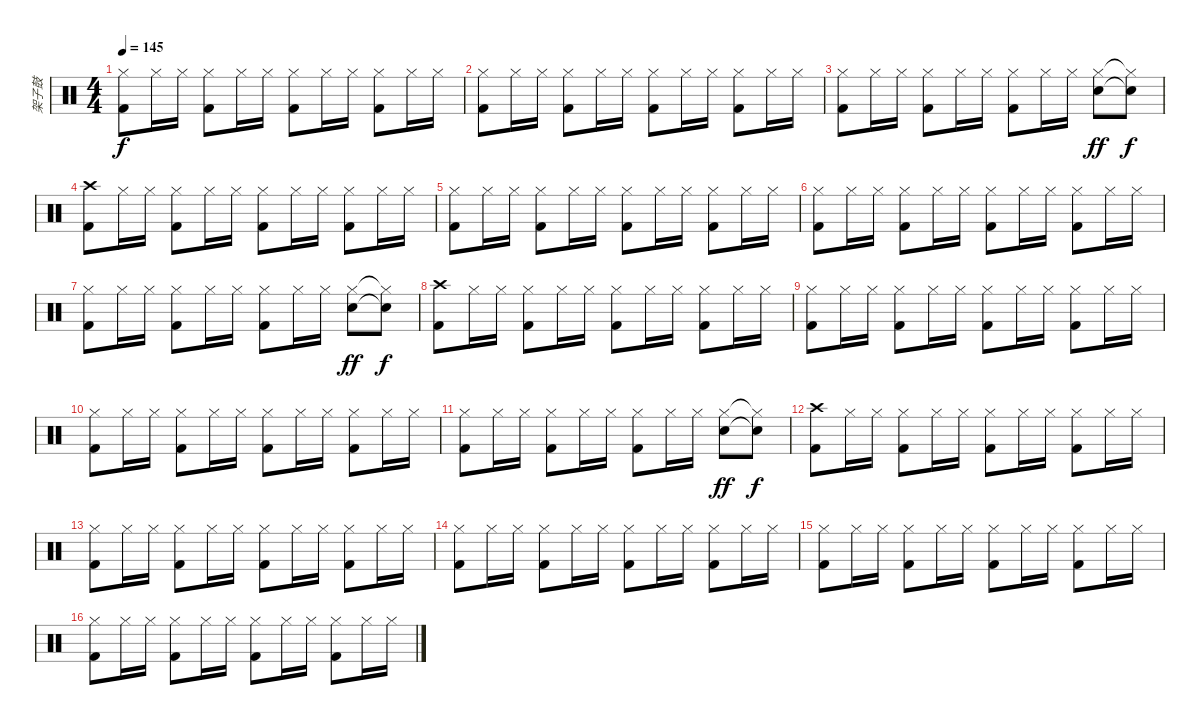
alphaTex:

\track ("架子鼓" "架子鼓") {instrument percussion}
\staff {score}
\articulation defaults
\ts (4 4)
\tempo 145
\clef neutral
\ks c
("Kick (hit) 2" "Hi-Hat (closed)").8{dy f} "Hi-Hat (closed)".16 "Hi-Hat (closed)".16 ("Kick (hit) 2" "Hi-Hat (closed)").8 "Hi-Hat (closed)".16 "Hi-Hat (closed)".16 ("Kick (hit) 2" "Hi-Hat (closed)").8 "Hi-Hat (closed)".16 "Hi-Hat (closed)".16 ("Kick (hit) 2" "Hi-Hat (closed)").8 "Hi-Hat (closed)".16 "Hi-Hat (closed)".16 |
("Kick (hit) 2" "Hi-Hat (closed)").8 "Hi-Hat (closed)".16 "Hi-Hat (closed)".16 ("Kick (hit) 2" "Hi-Hat (closed)").8 "Hi-Hat (closed)".16 "Hi-Hat (closed)".16 ("Kick (hit) 2" "Hi-Hat (closed)").8 "Hi-Hat (closed)".16 "Hi-Hat (closed)".16 ("Kick (hit) 2" "Hi-Hat (closed)").8 "Hi-Hat (closed)".16 "Hi-Hat (closed)".16 |
("Kick (hit) 2" "Hi-Hat (closed)").8 "Hi-Hat (closed)".16 "Hi-Hat (closed)".16 ("Kick (hit) 2" "Hi-Hat (closed)").8 "Hi-Hat (closed)".16 "Hi-Hat (closed)".16 ("Kick (hit) 2" "Hi-Hat (closed)").8 "Hi-Hat (closed)".16 "Hi-Hat (closed)".16 ("Hi-Hat (closed)" "Snare (hit) 2").8{dy ff} ("Hi-Hat (closed)"{t} "Snare (hit)"{t}).8{dy f} |
("Kick (hit) 2" "Crash high (hit)").8 "Hi-Hat (closed)".16 "Hi-Hat (closed)".16 ("Kick (hit) 2" "Hi-Hat (closed)").8 "Hi-Hat (closed)".16 "Hi-Hat (closed)".16 ("Kick (hit) 2" "Hi-Hat (closed)").8 "Hi-Hat (closed)".16 "Hi-Hat (closed)".16 ("Kick (hit) 2" "Hi-Hat (closed)").8 "Hi-Hat (closed)".16 "Hi-Hat (closed)".16 |
("Kick (hit) 2" "Hi-Hat (closed)").8 "Hi-Hat (closed)".16 "Hi-Hat (closed)".16 ("Kick (hit) 2" "Hi-Hat (closed)").8 "Hi-Hat (closed)".16 "Hi-Hat (closed)".16 ("Kick (hit) 2" "Hi-Hat (closed)").8 "Hi-Hat (closed)".16 "Hi-Hat (closed)".16 ("Kick (hit) 2" "Hi-Hat (closed)").8 "Hi-Hat (closed)".16 "Hi-Hat (closed)".16 |
("Kick (hit) 2" "Hi-Hat (closed)").8 "Hi-Hat (closed)".16 "Hi-Hat (closed)".16 ("Kick (hit) 2" "Hi-Hat (closed)").8 "Hi-Hat (closed)".16 "Hi-Hat (closed)".16 ("Kick (hit) 2" "Hi-Hat (closed)").8 "Hi-Hat (closed)".16 "Hi-Hat (closed)".16 ("Kick (hit) 2" "Hi-Hat (closed)").8 "Hi-Hat (closed)".16 "Hi-Hat (closed)".16 |
("Kick (hit) 2" "Hi-Hat (closed)").8 "Hi-Hat (closed)".16 "Hi-Hat (closed)".16 ("Kick (hit) 2" "Hi-Hat (closed)").8 "Hi-Hat (closed)".16 "Hi-Hat (closed)".16 ("Kick (hit) 2" "Hi-Hat (closed)").8 "Hi-Hat (closed)".16 "Hi-Hat (closed)".16 ("Hi-Hat (closed)" "Snare (hit) 2").8{dy ff} ("Hi-Hat (closed)"{t} "Snare (hit)"{t}).8{dy f} |
("Kick (hit) 2" "Crash high (hit)").8 "Hi-Hat (closed)".16 "Hi-Hat (closed)".16 ("Kick (hit) 2" "Hi-Hat (closed)").8 "Hi-Hat (closed)".16 "Hi-Hat (closed)".16 ("Kick (hit) 2" "Hi-Hat (closed)").8 "Hi-Hat (closed)".16 "Hi-Hat (closed)".16 ("Kick (hit) 2" "Hi-Hat (closed)").8 "Hi-Hat (closed)".16 "Hi-Hat (closed)".16 |
("Kick (hit) 2" "Hi-Hat (closed)").8 "Hi-Hat (closed)".16 "Hi-Hat (closed)".16 ("Kick (hit) 2" "Hi-Hat (closed)").8 "Hi-Hat (closed)".16 "Hi-Hat (closed)".16 ("Kick (hit) 2" "Hi-Hat (closed)").8 "Hi-Hat (closed)".16 "Hi-Hat (closed)".16 ("Kick (hit) 2" "Hi-Hat (closed)").8 "Hi-Hat (closed)".16 "Hi-Hat (closed)".16 |
("Kick (hit) 2" "Hi-Hat (closed)").8 "Hi-Hat (closed)".16 "Hi-Hat (closed)".16 ("Kick (hit) 2" "Hi-Hat (closed)").8 "Hi-Hat (closed)".16 "Hi-Hat (closed)".16 ("Kick (hit) 2" "Hi-Hat (closed)").8 "Hi-Hat (closed)".16 "Hi-Hat (closed)".16 ("Kick (hit) 2" "Hi-Hat (closed)").8 "Hi-Hat (closed)".16 "Hi-Hat (closed)".16 |
("Kick (hit) 2" "Hi-Hat (closed)").8 "Hi-Hat (closed)".16 "Hi-Hat (closed)".16 ("Kick (hit) 2" "Hi-Hat (closed)").8 "Hi-Hat (closed)".16 "Hi-Hat (closed)".16 ("Kick (hit) 2" "Hi-Hat (closed)").8 "Hi-Hat (closed)".16 "Hi-Hat (closed)".16 ("Hi-Hat (closed)" "Snare (hit) 2").8{dy ff} ("Hi-Hat (closed)"{t} "Snare (hit)"{t}).8{dy f} |
("Kick (hit) 2" "Crash high (hit)").8 "Hi-Hat (closed)".16 "Hi-Hat (closed)".16 ("Kick (hit) 2" "Hi-Hat (closed)").8 "Hi-Hat (closed)".16 "Hi-Hat (closed)".16 ("Kick (hit) 2" "Hi-Hat (closed)").8 "Hi-Hat (closed)".16 "Hi-Hat (closed)".16 ("Kick (hit) 2" "Hi-Hat (closed)").8 "Hi-Hat (closed)".16 "Hi-Hat (closed)".16 |
("Kick (hit) 2" "Hi-Hat (closed)").8 "Hi-Hat (closed)".16 "Hi-Hat (closed)".16 ("Kick (hit) 2" "Hi-Hat (closed)").8 "Hi-Hat (closed)".16 "Hi-Hat (closed)".16 ("Kick (hit) 2" "Hi-Hat (closed)").8 "Hi-Hat (closed)".16 "Hi-Hat (closed)".16 ("Kick (hit) 2" "Hi-Hat (closed)").8 "Hi-Hat (closed)".16 "Hi-Hat (closed)".16 |
("Kick (hit) 2" "Hi-Hat (closed)").8 "Hi-Hat (closed)".16 "Hi-Hat (closed)".16 ("Kick (hit) 2" "Hi-Hat (closed)").8 "Hi-Hat (closed)".16 "Hi-Hat (closed)".16 ("Kick (hit) 2" "Hi-Hat (closed)").8 "Hi-Hat (closed)".16 "Hi-Hat (closed)".16 ("Kick (hit) 2" "Hi-Hat (closed)").8 "Hi-Hat (closed)".16 "Hi-Hat (closed)".16 |
("Kick (hit) 2" "Hi-Hat (closed)").8 "Hi-Hat (closed)".16 "Hi-Hat (closed)".16 ("Kick (hit) 2" "Hi-Hat (closed)").8 "Hi-Hat (closed)".16 "Hi-Hat (closed)".16 ("Kick (hit) 2" "Hi-Hat (closed)").8 "Hi-Hat (closed)".16 "Hi-Hat (closed)".16 ("Kick (hit) 2" "Hi-Hat (closed)").8 "Hi-Hat (closed)".16 "Hi-Hat (closed)".16 |
("Kick (hit) 2" "Hi-Hat (closed)").8 "Hi-Hat (closed)".16 "Hi-Hat (closed)".16 ("Kick (hit) 2" "Hi-Hat (closed)").8 "Hi-Hat (closed)".16 "Hi-Hat (closed)".16 ("Kick (hit) 2" "Hi-Hat (closed)").8 "Hi-Hat (closed)".16 "Hi-Hat (closed)".16 ("Kick (hit) 2" "Hi-Hat (closed)").8 "Hi-Hat (closed)".16 "Hi-Hat (closed)".16
